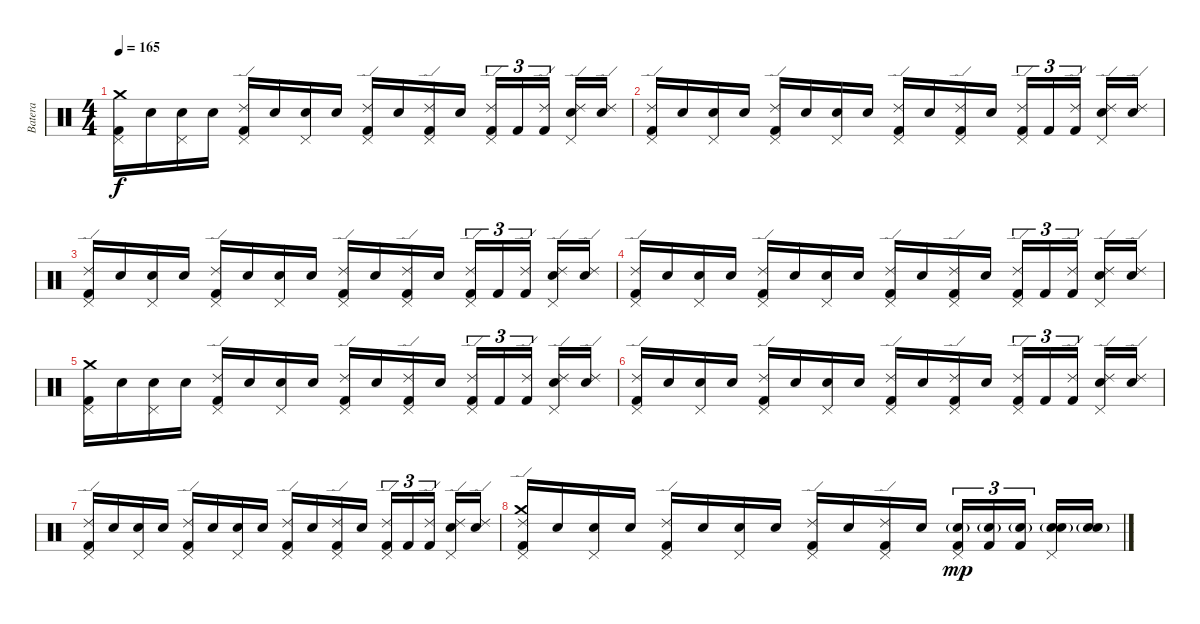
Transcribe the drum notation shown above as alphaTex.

\track ("Batera" "Batera") {instrument percussion}
\staff {score}
\articulation defaults
\ts (4 4)
\tempo 165
\clef neutral
\ks c
("Kick (hit) 2" "Pedal Hi-Hat (hit)" "Crash medium (hit)").16{dy f} "Snare (hit)".16 ("Snare (hit)" "Pedal Hi-Hat (hit)").16 "Snare (hit)".16 ("Kick (hit) 2" "Pedal Hi-Hat (hit)" "Ride (edge) 2").16 "Snare (hit)".16 ("Pedal Hi-Hat (hit)" "Snare (hit) 2").16 "Snare (hit)".16 ("Kick (hit) 2" "Pedal Hi-Hat (hit)" "Ride (edge) 2").16 "Snare (hit)".16 ("Kick (hit) 2" "Pedal Hi-Hat (hit)" "Ride (edge) 2").16 "Snare (hit)".16 ("Kick (hit) 2" "Pedal Hi-Hat (hit)" "Ride (edge) 2").16{tu (3 2)} "Kick (hit) 2".16{tu (3 2)} ("Kick (hit) 2" "Ride (edge) 2").16{tu (3 2)} ("Pedal Hi-Hat (hit)" "Snare (hit) 2" "Ride (edge) 2").16 ("Snare (hit)" "Ride (edge) 2").16 |
("Kick (hit) 2" "Pedal Hi-Hat (hit)" "Ride (edge) 2").16 "Snare (hit)".16 ("Snare (hit)" "Pedal Hi-Hat (hit)").16 "Snare (hit)".16 ("Kick (hit) 2" "Pedal Hi-Hat (hit)" "Ride (edge) 2").16 "Snare (hit)".16 ("Pedal Hi-Hat (hit)" "Snare (hit) 2").16 "Snare (hit)".16 ("Kick (hit) 2" "Pedal Hi-Hat (hit)" "Ride (edge) 2").16 "Snare (hit)".16 ("Kick (hit) 2" "Pedal Hi-Hat (hit)" "Ride (edge) 2").16 "Snare (hit)".16 ("Kick (hit) 2" "Pedal Hi-Hat (hit)" "Ride (edge) 2").16{tu (3 2)} "Kick (hit) 2".16{tu (3 2)} ("Kick (hit) 2" "Ride (edge) 2").16{tu (3 2)} ("Pedal Hi-Hat (hit)" "Snare (hit) 2" "Ride (edge) 2").16 ("Snare (hit)" "Ride (edge) 2").16 |
("Kick (hit) 2" "Pedal Hi-Hat (hit)" "Ride (edge) 2").16 "Snare (hit)".16 ("Snare (hit)" "Pedal Hi-Hat (hit)").16 "Snare (hit)".16 ("Kick (hit) 2" "Pedal Hi-Hat (hit)" "Ride (edge) 2").16 "Snare (hit)".16 ("Pedal Hi-Hat (hit)" "Snare (hit) 2").16 "Snare (hit)".16 ("Kick (hit) 2" "Pedal Hi-Hat (hit)" "Ride (edge) 2").16 "Snare (hit)".16 ("Kick (hit) 2" "Pedal Hi-Hat (hit)" "Ride (edge) 2").16 "Snare (hit)".16 ("Kick (hit) 2" "Pedal Hi-Hat (hit)" "Ride (edge) 2").16{tu (3 2)} "Kick (hit) 2".16{tu (3 2)} ("Kick (hit) 2" "Ride (edge) 2").16{tu (3 2)} ("Pedal Hi-Hat (hit)" "Snare (hit) 2" "Ride (edge) 2").16 ("Snare (hit)" "Ride (edge) 2").16 |
("Kick (hit) 2" "Pedal Hi-Hat (hit)" "Ride (edge) 2").16 "Snare (hit)".16 ("Snare (hit)" "Pedal Hi-Hat (hit)").16 "Snare (hit)".16 ("Kick (hit) 2" "Pedal Hi-Hat (hit)" "Ride (edge) 2").16 "Snare (hit)".16 ("Pedal Hi-Hat (hit)" "Snare (hit) 2").16 "Snare (hit)".16 ("Kick (hit) 2" "Pedal Hi-Hat (hit)" "Ride (edge) 2").16 "Snare (hit)".16 ("Kick (hit) 2" "Pedal Hi-Hat (hit)" "Ride (edge) 2").16 "Snare (hit)".16 ("Kick (hit) 2" "Pedal Hi-Hat (hit)" "Ride (edge) 2").16{tu (3 2)} "Kick (hit) 2".16{tu (3 2)} ("Kick (hit) 2" "Ride (edge) 2").16{tu (3 2)} ("Pedal Hi-Hat (hit)" "Snare (hit) 2" "Ride (edge) 2").16 ("Snare (hit)" "Ride (edge) 2").16 |
("Kick (hit) 2" "Pedal Hi-Hat (hit)" "Crash medium (hit)").16 "Snare (hit)".16 ("Snare (hit)" "Pedal Hi-Hat (hit)").16 "Snare (hit)".16 ("Kick (hit) 2" "Pedal Hi-Hat (hit)" "Ride (edge) 2").16 "Snare (hit)".16 ("Pedal Hi-Hat (hit)" "Snare (hit) 2").16 "Snare (hit)".16 ("Kick (hit) 2" "Pedal Hi-Hat (hit)" "Ride (edge) 2").16 "Snare (hit)".16 ("Kick (hit) 2" "Pedal Hi-Hat (hit)" "Ride (edge) 2").16 "Snare (hit)".16 ("Kick (hit) 2" "Pedal Hi-Hat (hit)" "Ride (edge) 2").16{tu (3 2)} "Kick (hit) 2".16{tu (3 2)} ("Kick (hit) 2" "Ride (edge) 2").16{tu (3 2)} ("Pedal Hi-Hat (hit)" "Snare (hit) 2" "Ride (edge) 2").16 ("Snare (hit)" "Ride (edge) 2").16 |
("Kick (hit) 2" "Pedal Hi-Hat (hit)" "Ride (edge) 2").16 "Snare (hit)".16 ("Snare (hit)" "Pedal Hi-Hat (hit)").16 "Snare (hit)".16 ("Kick (hit) 2" "Pedal Hi-Hat (hit)" "Ride (edge) 2").16 "Snare (hit)".16 ("Pedal Hi-Hat (hit)" "Snare (hit) 2").16 "Snare (hit)".16 ("Kick (hit) 2" "Pedal Hi-Hat (hit)" "Ride (edge) 2").16 "Snare (hit)".16 ("Kick (hit) 2" "Pedal Hi-Hat (hit)" "Ride (edge) 2").16 "Snare (hit)".16 ("Kick (hit) 2" "Pedal Hi-Hat (hit)" "Ride (edge) 2").16{tu (3 2)} "Kick (hit) 2".16{tu (3 2)} ("Kick (hit) 2" "Ride (edge) 2").16{tu (3 2)} ("Pedal Hi-Hat (hit)" "Snare (hit) 2" "Ride (edge) 2").16 ("Snare (hit)" "Ride (edge) 2").16 |
("Kick (hit) 2" "Pedal Hi-Hat (hit)" "Ride (edge) 2").16 "Snare (hit)".16 ("Snare (hit)" "Pedal Hi-Hat (hit)").16 "Snare (hit)".16 ("Kick (hit) 2" "Pedal Hi-Hat (hit)" "Ride (edge) 2").16 "Snare (hit)".16 ("Pedal Hi-Hat (hit)" "Snare (hit) 2").16 "Snare (hit)".16 ("Kick (hit) 2" "Pedal Hi-Hat (hit)" "Ride (edge) 2").16 "Snare (hit)".16 ("Kick (hit) 2" "Pedal Hi-Hat (hit)" "Ride (edge) 2").16 "Snare (hit)".16 ("Kick (hit) 2" "Pedal Hi-Hat (hit)" "Ride (edge) 2").16{tu (3 2)} "Kick (hit) 2".16{tu (3 2)} ("Kick (hit) 2" "Ride (edge) 2").16{tu (3 2)} ("Pedal Hi-Hat (hit)" "Snare (hit) 2" "Ride (edge) 2").16 ("Snare (hit)" "Ride (edge) 2").16 |
("Kick (hit) 2" "Pedal Hi-Hat (hit)" "Crash medium (hit)" "Ride (edge) 2").16 "Snare (hit)".16 ("Snare (hit)" "Pedal Hi-Hat (hit)").16 "Snare (hit)".16 ("Kick (hit) 2" "Pedal Hi-Hat (hit)" "Ride (edge) 2").16 "Snare (hit)".16 ("Pedal Hi-Hat (hit)" "Snare (hit) 2").16 "Snare (hit)".16 ("Kick (hit) 2" "Pedal Hi-Hat (hit)" "Ride (edge) 2").16 "Snare (hit)".16 ("Kick (hit) 2" "Pedal Hi-Hat (hit)" "Ride (edge) 2").16 "Snare (hit)".16 ("Kick (hit) 2" "Pedal Hi-Hat (hit)" "Snare (hit) 2"{g}).16{tu (3 2) dy mp} ("Kick (hit) 2" "Snare (hit) 2"{g}).16{tu (3 2)} ("Kick (hit) 2" "Snare (hit) 2"{g}).16{tu (3 2)} ("Pedal Hi-Hat (hit)" "Snare (hit) 2" "Snare (hit) 2"{g}).16 ("Snare (hit)" "Snare (hit) 2"{g}).16
